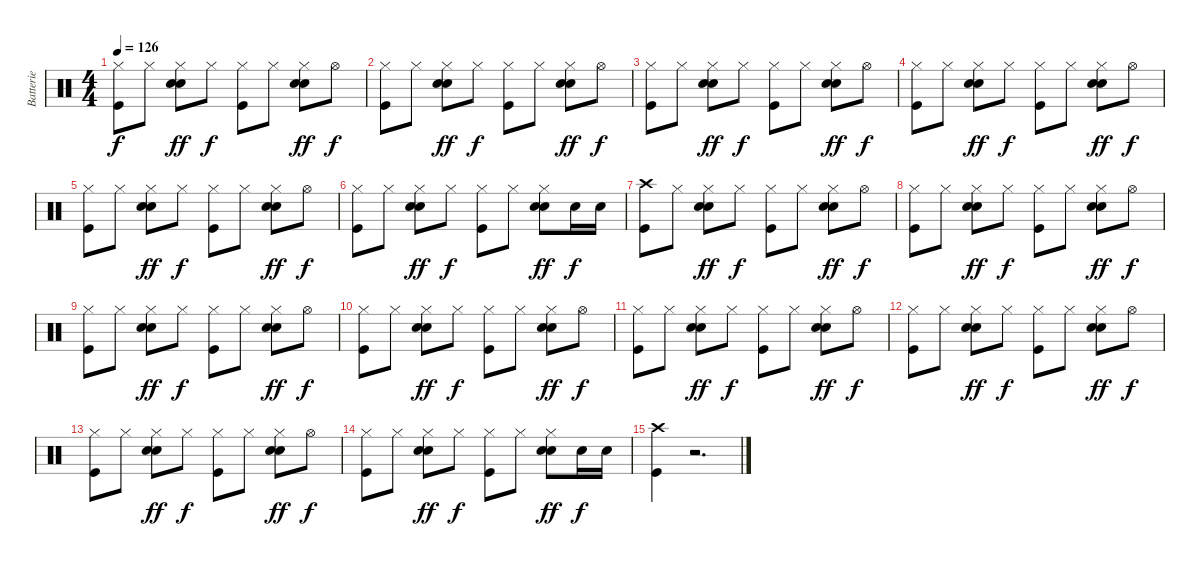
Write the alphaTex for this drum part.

\track ("Batterie" "Batterie") {instrument percussion}
\staff {score}
\articulation defaults
\ts (4 4)
\tempo 126
\clef neutral
\ks c
("Hi-Hat (closed)" "Kick (hit)").8{dy f} "Hi-Hat (closed)".8 ("Hi-Hat (closed)" "Hand Clap (hit)" "Snare (hit) 2").8{dy ff} "Hi-Hat (closed)".8{dy f} ("Hi-Hat (closed)" "Kick (hit)").8 "Hi-Hat (closed)".8 ("Hi-Hat (closed)" "Hand Clap (hit)" "Snare (hit) 2").8{dy ff} "Hi-Hat (open)".8{dy f} |
("Hi-Hat (closed)" "Kick (hit)").8 "Hi-Hat (closed)".8 ("Hi-Hat (closed)" "Hand Clap (hit)" "Snare (hit) 2").8{dy ff} "Hi-Hat (closed)".8{dy f} ("Hi-Hat (closed)" "Kick (hit)").8 "Hi-Hat (closed)".8 ("Hi-Hat (closed)" "Hand Clap (hit)" "Snare (hit) 2").8{dy ff} "Hi-Hat (open)".8{dy f} |
("Hi-Hat (closed)" "Kick (hit)").8 "Hi-Hat (closed)".8 ("Hi-Hat (closed)" "Hand Clap (hit)" "Snare (hit) 2").8{dy ff} "Hi-Hat (closed)".8{dy f} ("Hi-Hat (closed)" "Kick (hit)").8 "Hi-Hat (closed)".8 ("Hi-Hat (closed)" "Hand Clap (hit)" "Snare (hit) 2").8{dy ff} "Hi-Hat (open)".8{dy f} |
("Hi-Hat (closed)" "Kick (hit)").8 "Hi-Hat (closed)".8 ("Hi-Hat (closed)" "Hand Clap (hit)" "Snare (hit) 2").8{dy ff} "Hi-Hat (closed)".8{dy f} ("Hi-Hat (closed)" "Kick (hit)").8 "Hi-Hat (closed)".8 ("Hi-Hat (closed)" "Hand Clap (hit)" "Snare (hit) 2").8{dy ff} "Hi-Hat (open)".8{dy f} |
("Hi-Hat (closed)" "Kick (hit)").8 "Hi-Hat (closed)".8 ("Hi-Hat (closed)" "Hand Clap (hit)" "Snare (hit) 2").8{dy ff} "Hi-Hat (closed)".8{dy f} ("Hi-Hat (closed)" "Kick (hit)").8 "Hi-Hat (closed)".8 ("Hi-Hat (closed)" "Hand Clap (hit)" "Snare (hit) 2").8{dy ff} "Hi-Hat (open)".8{dy f} |
("Hi-Hat (closed)" "Kick (hit)").8 "Hi-Hat (closed)".8 ("Hi-Hat (closed)" "Hand Clap (hit)" "Snare (hit) 2").8{dy ff} "Hi-Hat (closed)".8{dy f} ("Hi-Hat (closed)" "Kick (hit)").8 "Hi-Hat (closed)".8 ("Hi-Hat (closed)" "Hand Clap (hit)" "Snare (hit) 2").8{dy ff} "Snare (hit) 2".16{dy f} "Snare (hit) 2".16 |
("Crash high (hit)" "Kick (hit)").8 "Hi-Hat (closed)".8 ("Hi-Hat (closed)" "Hand Clap (hit)" "Snare (hit) 2").8{dy ff} "Hi-Hat (closed)".8{dy f} ("Hi-Hat (closed)" "Kick (hit)").8 "Hi-Hat (closed)".8 ("Hi-Hat (closed)" "Hand Clap (hit)" "Snare (hit) 2").8{dy ff} "Hi-Hat (open)".8{dy f} |
("Hi-Hat (closed)" "Kick (hit)").8 "Hi-Hat (closed)".8 ("Hi-Hat (closed)" "Hand Clap (hit)" "Snare (hit) 2").8{dy ff} "Hi-Hat (closed)".8{dy f} ("Hi-Hat (closed)" "Kick (hit)").8 "Hi-Hat (closed)".8 ("Hi-Hat (closed)" "Hand Clap (hit)" "Snare (hit) 2").8{dy ff} "Hi-Hat (open)".8{dy f} |
("Hi-Hat (closed)" "Kick (hit)").8 "Hi-Hat (closed)".8 ("Hi-Hat (closed)" "Hand Clap (hit)" "Snare (hit) 2").8{dy ff} "Hi-Hat (closed)".8{dy f} ("Hi-Hat (closed)" "Kick (hit)").8 "Hi-Hat (closed)".8 ("Hi-Hat (closed)" "Hand Clap (hit)" "Snare (hit) 2").8{dy ff} "Hi-Hat (open)".8{dy f} |
("Hi-Hat (closed)" "Kick (hit)").8 "Hi-Hat (closed)".8 ("Hi-Hat (closed)" "Hand Clap (hit)" "Snare (hit) 2").8{dy ff} "Hi-Hat (closed)".8{dy f} ("Hi-Hat (closed)" "Kick (hit)").8 "Hi-Hat (closed)".8 ("Hi-Hat (closed)" "Hand Clap (hit)" "Snare (hit) 2").8{dy ff} "Hi-Hat (open)".8{dy f} |
("Hi-Hat (closed)" "Kick (hit)").8 "Hi-Hat (closed)".8 ("Hi-Hat (closed)" "Hand Clap (hit)" "Snare (hit) 2").8{dy ff} "Hi-Hat (closed)".8{dy f} ("Hi-Hat (closed)" "Kick (hit)").8 "Hi-Hat (closed)".8 ("Hi-Hat (closed)" "Hand Clap (hit)" "Snare (hit) 2").8{dy ff} "Hi-Hat (open)".8{dy f} |
("Hi-Hat (closed)" "Kick (hit)").8 "Hi-Hat (closed)".8 ("Hi-Hat (closed)" "Hand Clap (hit)" "Snare (hit) 2").8{dy ff} "Hi-Hat (closed)".8{dy f} ("Hi-Hat (closed)" "Kick (hit)").8 "Hi-Hat (closed)".8 ("Hi-Hat (closed)" "Hand Clap (hit)" "Snare (hit) 2").8{dy ff} "Hi-Hat (open)".8{dy f} |
("Hi-Hat (closed)" "Kick (hit)").8 "Hi-Hat (closed)".8 ("Hi-Hat (closed)" "Hand Clap (hit)" "Snare (hit) 2").8{dy ff} "Hi-Hat (closed)".8{dy f} ("Hi-Hat (closed)" "Kick (hit)").8 "Hi-Hat (closed)".8 ("Hi-Hat (closed)" "Hand Clap (hit)" "Snare (hit) 2").8{dy ff} "Hi-Hat (open)".8{dy f} |
("Hi-Hat (closed)" "Kick (hit)").8 "Hi-Hat (closed)".8 ("Hi-Hat (closed)" "Hand Clap (hit)" "Snare (hit) 2").8{dy ff} "Hi-Hat (closed)".8{dy f} ("Hi-Hat (closed)" "Kick (hit)").8 "Hi-Hat (closed)".8 ("Hi-Hat (closed)" "Hand Clap (hit)" "Snare (hit) 2").8{dy ff} "Snare (hit) 2".16{dy f} "Snare (hit) 2".16 |
("Crash high (hit)" "Kick (hit)").4 r.2{d}
